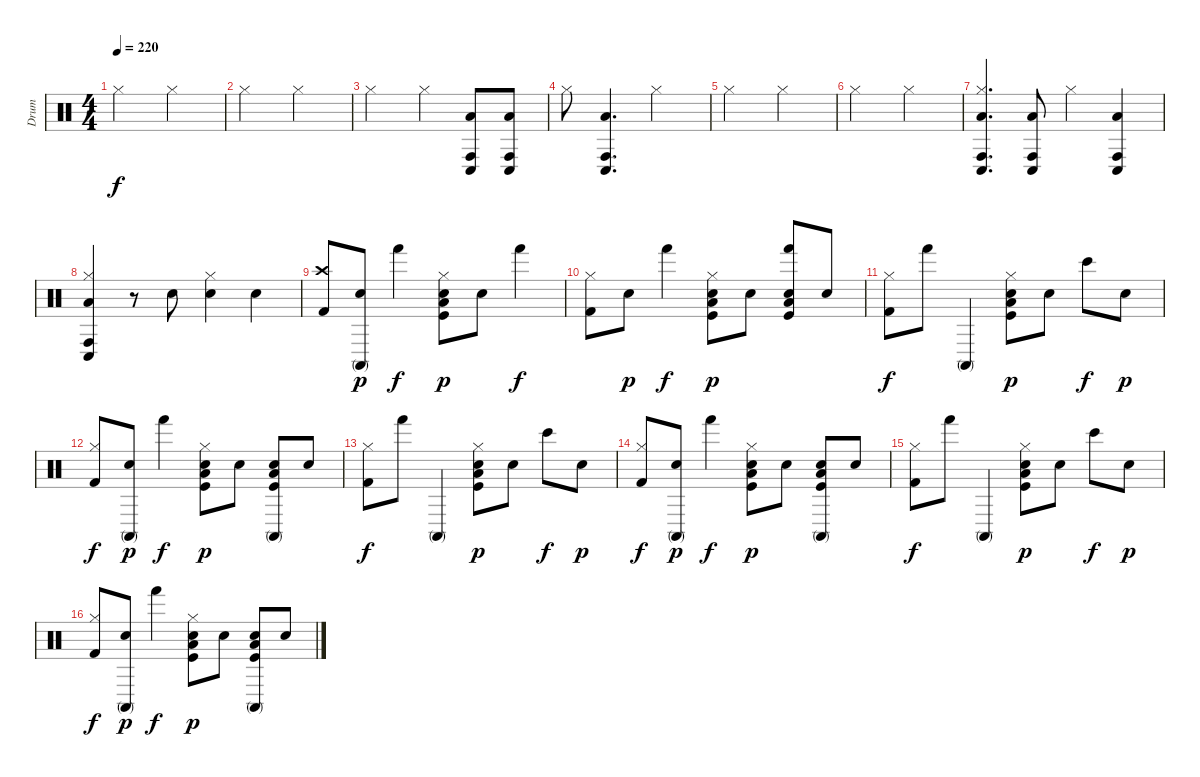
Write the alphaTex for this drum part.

\track ("Drum" "Drum") {instrument percussion}
\staff {score}
\articulation defaults
\ts (4 4)
\tempo 220
\clef neutral
\ks c "Hi-Hat (closed)".2{dy f} "Hi-Hat (closed)".2
|
"Hi-Hat (closed)".2 "Hi-Hat (closed)".2 |
"Hi-Hat (closed)".2 "Hi-Hat (closed)".4 ("Low Floor Tom (hit)" "Conga low (hit)" "Conga high (hit)").8 ("Low Floor Tom (hit)" "Conga low (hit)" "Conga high (hit)").8 |
"Hi-Hat (closed)".8 ("Low Floor Tom (hit)" "Conga low (hit)" "Conga high (hit)").4{d} "Hi-Hat (closed)".2 |
"Hi-Hat (closed)".2 "Hi-Hat (closed)".2 |
"Hi-Hat (closed)".2 "Hi-Hat (closed)".2 |
("Hi-Hat (closed)" "Low Floor Tom (hit)" "Conga low (hit)" "Conga high (hit)").4{d} ("Low Floor Tom (hit)" "Conga low (hit)" "Conga high (hit)").8 "Hi-Hat (closed)".4 ("Low Floor Tom (hit)" "Conga low (hit)" "Conga high (hit)").4 |
("Hi-Hat (closed)" "Low Floor Tom (hit)" "Conga low (hit)" "Conga high (hit)").4 r.8 "Electric Snare (hit)".8 ("Hi-Hat (closed)" "Electric Snare (hit)").4 "Electric Snare (hit)".4 |
("Crash high (hit)" "Kick (hit) 2").8 ("Conga high (mute)" "Electric Snare (hit)").8{dy p} "Hand (hit)".4{dy f} ("Hi-Hat (closed)" "Low Floor Tom (hit)" "Electric Snare (hit)" "Kick (hit)").8{dy p} "Electric Snare (hit)".8 "Hand (hit)".4{dy f} |
("Hi-Hat (closed)" "Kick (hit) 2").8 "Electric Snare (hit)".8{dy p} "Hand (hit)".4{dy f} ("Hi-Hat (closed)" "Low Floor Tom (hit)" "Electric Snare (hit)" "Kick (hit)").8{dy p} "Electric Snare (hit)".8 ("Low Floor Tom (hit)" "Hand (hit)" "Electric Snare (hit)" "Kick (hit)").8 "Electric Snare (hit)".8 |
("Hi-Hat (closed)" "Kick (hit) 2").8{dy f} "Hand (hit)".8 "Conga high (mute)".4 ("Hi-Hat (closed)" "Low Floor Tom (hit)" "Electric Snare (hit)" "Kick (hit)").8{dy p} "Electric Snare (hit)".8 "Bongo High (hit)".8{dy f} "Electric Snare (hit)".8{dy p} |
("Hi-Hat (closed)" "Kick (hit) 2").8{dy f} ("Conga high (mute)" "Electric Snare (hit)").8{dy p} "Hand (hit)".4{dy f} ("Hi-Hat (closed)" "Low Floor Tom (hit)" "Electric Snare (hit)" "Kick (hit)").8{dy p} "Electric Snare (hit)".8 ("Low Floor Tom (hit)" "Conga high (mute)" "Electric Snare (hit)" "Kick (hit)").8 "Electric Snare (hit)".8 |
("Hi-Hat (closed)" "Kick (hit) 2").8{dy f} "Hand (hit)".8 "Conga high (mute)".4 ("Hi-Hat (closed)" "Low Floor Tom (hit)" "Electric Snare (hit)" "Kick (hit)").8{dy p} "Electric Snare (hit)".8 "Bongo High (hit)".8{dy f} "Electric Snare (hit)".8{dy p} |
("Hi-Hat (closed)" "Kick (hit) 2").8{dy f} ("Conga high (mute)" "Electric Snare (hit)").8{dy p} "Hand (hit)".4{dy f} ("Hi-Hat (closed)" "Low Floor Tom (hit)" "Electric Snare (hit)" "Kick (hit)").8{dy p} "Electric Snare (hit)".8 ("Low Floor Tom (hit)" "Conga high (mute)" "Electric Snare (hit)" "Kick (hit)").8 "Electric Snare (hit)".8 |
("Hi-Hat (closed)" "Kick (hit) 2").8{dy f} "Hand (hit)".8 "Conga high (mute)".4 ("Hi-Hat (closed)" "Low Floor Tom (hit)" "Electric Snare (hit)" "Kick (hit)").8{dy p} "Electric Snare (hit)".8 "Bongo High (hit)".8{dy f} "Electric Snare (hit)".8{dy p} |
("Hi-Hat (closed)" "Kick (hit) 2").8{dy f} ("Conga high (mute)" "Electric Snare (hit)").8{dy p} "Hand (hit)".4{dy f} ("Hi-Hat (closed)" "Low Floor Tom (hit)" "Electric Snare (hit)" "Kick (hit)").8{dy p} "Electric Snare (hit)".8 ("Low Floor Tom (hit)" "Conga high (mute)" "Electric Snare (hit)" "Kick (hit)").8 "Electric Snare (hit)".8
